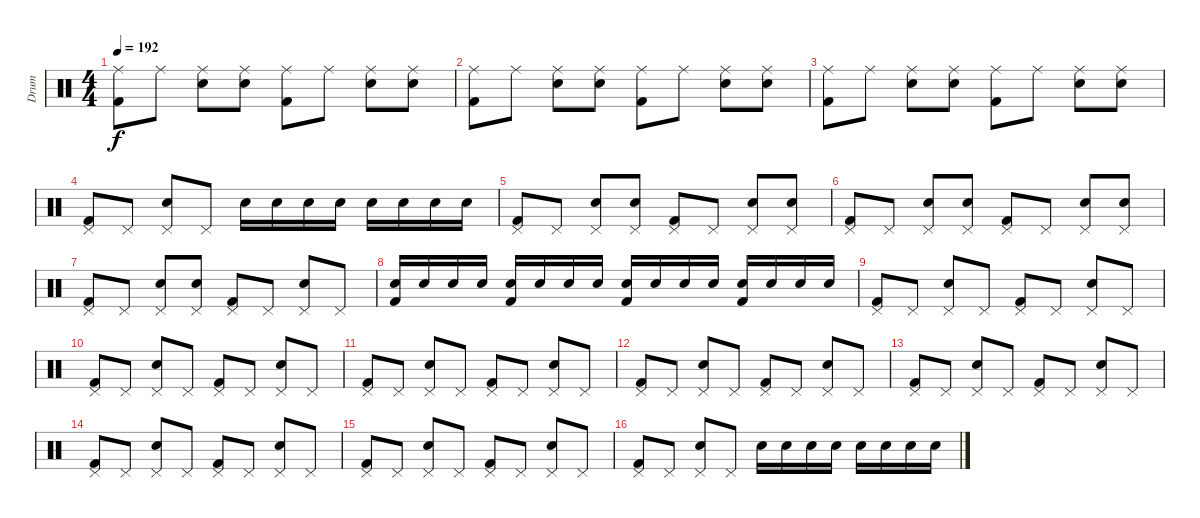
\track ("Drum" "Drum") {instrument percussion}
\staff {score}
\articulation defaults
\ts (4 4)
\tempo 192
\clef neutral
\ks c
("Kick (hit) 2" "Ride (middle)").8{dy f} "Ride (middle)".8 ("Electric Snare (hit)" "Ride (middle)").8 ("Electric Snare (hit)" "Ride (middle)").8 ("Kick (hit) 2" "Ride (middle)").8 "Ride (middle)".8 ("Electric Snare (hit)" "Ride (middle)").8 ("Electric Snare (hit)" "Ride (middle)").8 |
("Kick (hit) 2" "Ride (middle)").8 "Ride (middle)".8 ("Electric Snare (hit)" "Ride (middle)").8 ("Electric Snare (hit)" "Ride (middle)").8 ("Kick (hit) 2" "Ride (middle)").8 "Ride (middle)".8 ("Electric Snare (hit)" "Ride (middle)").8 ("Electric Snare (hit)" "Ride (middle)").8 |
("Kick (hit) 2" "Ride (middle)").8 "Ride (middle)".8 ("Electric Snare (hit)" "Ride (middle)").8 ("Electric Snare (hit)" "Ride (middle)").8 ("Kick (hit) 2" "Ride (middle)").8 "Ride (middle)".8 ("Electric Snare (hit)" "Ride (middle)").8 ("Electric Snare (hit)" "Ride (middle)").8 |
("Pedal Hi-Hat (hit)" "Kick (hit) 2").8 "Pedal Hi-Hat (hit)".8 ("Pedal Hi-Hat (hit)" "Electric Snare (hit)").8 "Pedal Hi-Hat (hit)".8 "Electric Snare (hit)".16 "Electric Snare (hit)".16 "Electric Snare (hit)".16 "Electric Snare (hit)".16 "Electric Snare (hit)".16 "Electric Snare (hit)".16 "Electric Snare (hit)".16 "Electric Snare (hit)".16 |
("Pedal Hi-Hat (hit)" "Kick (hit) 2").8 "Pedal Hi-Hat (hit)".8 ("Pedal Hi-Hat (hit)" "Electric Snare (hit)").8 ("Pedal Hi-Hat (hit)" "Electric Snare (hit)").8 ("Pedal Hi-Hat (hit)" "Kick (hit) 2").8 "Pedal Hi-Hat (hit)".8 ("Pedal Hi-Hat (hit)" "Electric Snare (hit)").8 ("Pedal Hi-Hat (hit)" "Electric Snare (hit)").8 |
("Pedal Hi-Hat (hit)" "Kick (hit) 2").8 "Pedal Hi-Hat (hit)".8 ("Pedal Hi-Hat (hit)" "Electric Snare (hit)").8 ("Pedal Hi-Hat (hit)" "Electric Snare (hit)").8 ("Pedal Hi-Hat (hit)" "Kick (hit) 2").8 "Pedal Hi-Hat (hit)".8 ("Pedal Hi-Hat (hit)" "Electric Snare (hit)").8 ("Pedal Hi-Hat (hit)" "Electric Snare (hit)").8 |
("Pedal Hi-Hat (hit)" "Kick (hit) 2").8 "Pedal Hi-Hat (hit)".8 ("Pedal Hi-Hat (hit)" "Electric Snare (hit)").8 ("Pedal Hi-Hat (hit)" "Electric Snare (hit)").8 ("Pedal Hi-Hat (hit)" "Kick (hit) 2").8 "Pedal Hi-Hat (hit)".8 ("Pedal Hi-Hat (hit)" "Electric Snare (hit)").8 "Pedal Hi-Hat (hit)".8 |
("Electric Snare (hit)" "Kick (hit) 2").16 "Electric Snare (hit)".16 "Electric Snare (hit)".16 "Electric Snare (hit)".16 ("Electric Snare (hit)" "Kick (hit) 2").16 "Electric Snare (hit)".16 "Electric Snare (hit)".16 "Electric Snare (hit)".16 ("Electric Snare (hit)" "Kick (hit) 2").16 "Electric Snare (hit)".16 "Electric Snare (hit)".16 "Electric Snare (hit)".16 ("Electric Snare (hit)" "Kick (hit) 2").16 "Electric Snare (hit)".16 "Electric Snare (hit)".16 "Electric Snare (hit)".16 |
("Pedal Hi-Hat (hit)" "Kick (hit) 2").8 "Pedal Hi-Hat (hit)".8 ("Pedal Hi-Hat (hit)" "Electric Snare (hit)").8 "Pedal Hi-Hat (hit)".8 ("Pedal Hi-Hat (hit)" "Kick (hit) 2").8 "Pedal Hi-Hat (hit)".8 ("Pedal Hi-Hat (hit)" "Electric Snare (hit)").8 "Pedal Hi-Hat (hit)".8 |
("Pedal Hi-Hat (hit)" "Kick (hit) 2").8 "Pedal Hi-Hat (hit)".8 ("Pedal Hi-Hat (hit)" "Electric Snare (hit)").8 "Pedal Hi-Hat (hit)".8 ("Pedal Hi-Hat (hit)" "Kick (hit) 2").8 "Pedal Hi-Hat (hit)".8 ("Pedal Hi-Hat (hit)" "Electric Snare (hit)").8 "Pedal Hi-Hat (hit)".8 |
("Pedal Hi-Hat (hit)" "Kick (hit) 2").8 "Pedal Hi-Hat (hit)".8 ("Pedal Hi-Hat (hit)" "Electric Snare (hit)").8 "Pedal Hi-Hat (hit)".8 ("Pedal Hi-Hat (hit)" "Kick (hit) 2").8 "Pedal Hi-Hat (hit)".8 ("Pedal Hi-Hat (hit)" "Electric Snare (hit)").8 "Pedal Hi-Hat (hit)".8 |
("Pedal Hi-Hat (hit)" "Kick (hit) 2").8 "Pedal Hi-Hat (hit)".8 ("Pedal Hi-Hat (hit)" "Electric Snare (hit)").8 "Pedal Hi-Hat (hit)".8 ("Pedal Hi-Hat (hit)" "Kick (hit) 2").8 "Pedal Hi-Hat (hit)".8 ("Pedal Hi-Hat (hit)" "Electric Snare (hit)").8 "Pedal Hi-Hat (hit)".8 |
("Pedal Hi-Hat (hit)" "Kick (hit) 2").8 "Pedal Hi-Hat (hit)".8 ("Pedal Hi-Hat (hit)" "Electric Snare (hit)").8 "Pedal Hi-Hat (hit)".8 ("Pedal Hi-Hat (hit)" "Kick (hit) 2").8 "Pedal Hi-Hat (hit)".8 ("Pedal Hi-Hat (hit)" "Electric Snare (hit)").8 "Pedal Hi-Hat (hit)".8 |
("Pedal Hi-Hat (hit)" "Kick (hit) 2").8 "Pedal Hi-Hat (hit)".8 ("Pedal Hi-Hat (hit)" "Electric Snare (hit)").8 "Pedal Hi-Hat (hit)".8 ("Pedal Hi-Hat (hit)" "Kick (hit) 2").8 "Pedal Hi-Hat (hit)".8 ("Pedal Hi-Hat (hit)" "Electric Snare (hit)").8 "Pedal Hi-Hat (hit)".8 |
("Pedal Hi-Hat (hit)" "Kick (hit) 2").8 "Pedal Hi-Hat (hit)".8 ("Pedal Hi-Hat (hit)" "Electric Snare (hit)").8 "Pedal Hi-Hat (hit)".8 ("Pedal Hi-Hat (hit)" "Kick (hit) 2").8 "Pedal Hi-Hat (hit)".8 ("Pedal Hi-Hat (hit)" "Electric Snare (hit)").8 "Pedal Hi-Hat (hit)".8 |
("Pedal Hi-Hat (hit)" "Kick (hit) 2").8 "Pedal Hi-Hat (hit)".8 ("Pedal Hi-Hat (hit)" "Electric Snare (hit)").8 "Pedal Hi-Hat (hit)".8 "Electric Snare (hit)".16 "Electric Snare (hit)".16 "Electric Snare (hit)".16 "Electric Snare (hit)".16 "Electric Snare (hit)".16 "Electric Snare (hit)".16 "Electric Snare (hit)".16 "Electric Snare (hit)".16
